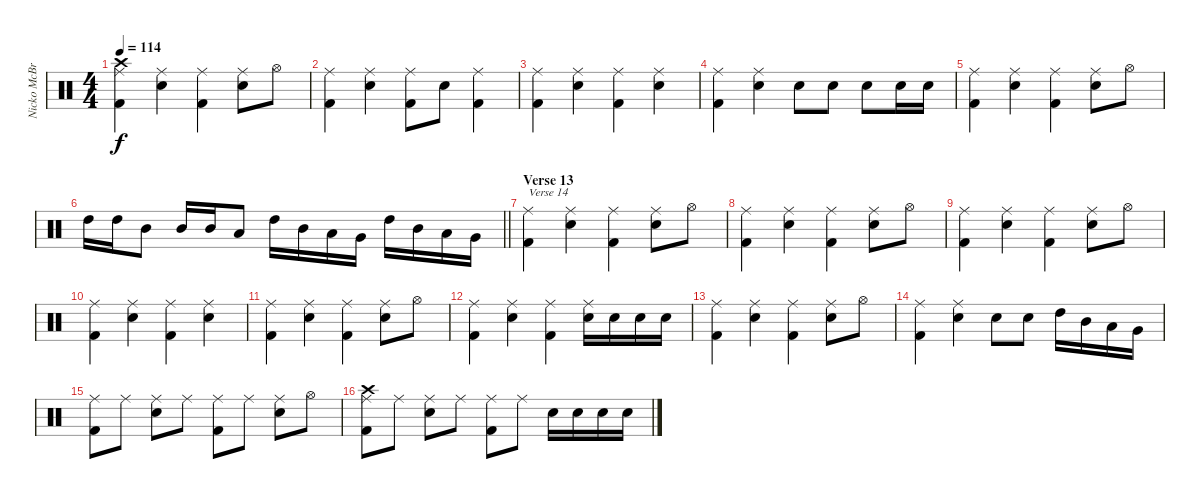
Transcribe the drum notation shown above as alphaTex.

\track ("Nicko McBrain" "Nicko McBr") {instrument percussion}
\staff {score}
\articulation defaults
\ts (4 4)
\tempo 114
\clef neutral
\ks c
("Ride (middle)" "Kick (hit) 2" "Crash high (hit)").4{dy f} ("Ride (middle)" "Snare (hit) 2").4 ("Ride (middle)" "Kick (hit) 2").4 ("Ride (middle)" "Snare (hit) 2").8 "Hi-Hat (open)".8 |
("Ride (middle)" "Kick (hit) 2").4 ("Ride (middle)" "Snare (hit) 2").4 ("Ride (middle)" "Kick (hit) 2").8 "Snare (hit) 2".8 ("Ride (middle)" "Kick (hit) 2").4 |
("Ride (middle)" "Kick (hit) 2").4 ("Ride (middle)" "Snare (hit) 2").4 ("Ride (middle)" "Kick (hit) 2").4 ("Ride (middle)" "Snare (hit) 2").4 |
("Ride (middle)" "Kick (hit) 2").4 ("Ride (middle)" "Snare (hit) 2").4 "Snare (hit) 2".8 "Snare (hit) 2".8 "Snare (hit) 2".8 "Snare (hit) 2".16 "Snare (hit) 2".16 |
("Ride (middle)" "Kick (hit) 2").4 ("Ride (middle)" "Snare (hit) 2").4 ("Ride (middle)" "Kick (hit) 2").4 ("Ride (middle)" "Snare (hit) 2").8 "Hi-Hat (open)".8 |
\barLineRight lightlight "High Tom (hit)".16 "High Tom (hit)".16 "Mid Tom (hit)".8 "Mid Tom (hit)".16 "Mid Tom (hit)".16 "Low Tom (hit)".8 "High Tom (hit)".16 "Mid Tom (hit)".16 "Low Tom (hit)".16 "Very Low Tom (hit)".16 "High Tom (hit)".16 "Mid Tom (hit)".16 "Low Tom (hit)".16 "Very Low Tom (hit)".16
|
\section ("" "Verse 13")
("Ride (middle)" "Kick (hit) 2").4{txt "Verse 14"} ("Ride (middle)" "Snare (hit) 2").4 ("Ride (middle)" "Kick (hit) 2").4 ("Ride (middle)" "Snare (hit) 2").8 "Hi-Hat (open)".8 |
("Ride (middle)" "Kick (hit) 2").4 ("Ride (middle)" "Snare (hit) 2").4 ("Ride (middle)" "Kick (hit) 2").4 ("Ride (middle)" "Snare (hit) 2").8 "Hi-Hat (open)".8 |
("Ride (middle)" "Kick (hit) 2").4 ("Ride (middle)" "Snare (hit) 2").4 ("Ride (middle)" "Kick (hit) 2").4 ("Ride (middle)" "Snare (hit) 2").8 "Hi-Hat (open)".8 |
("Ride (middle)" "Kick (hit) 2").4 ("Ride (middle)" "Snare (hit) 2").4 ("Ride (middle)" "Kick (hit) 2").4 ("Ride (middle)" "Snare (hit) 2").4 |
("Ride (middle)" "Kick (hit) 2").4 ("Ride (middle)" "Snare (hit) 2").4 ("Ride (middle)" "Kick (hit) 2").4 ("Ride (middle)" "Snare (hit) 2").8 "Hi-Hat (open)".8 |
("Ride (middle)" "Kick (hit) 2").4 ("Ride (middle)" "Snare (hit) 2").4 ("Ride (middle)" "Kick (hit) 2").4 ("Ride (middle)" "Snare (hit) 2").16 "Snare (hit) 2".16 "Snare (hit) 2".16 "Snare (hit) 2".16 |
("Ride (middle)" "Kick (hit) 2").4 ("Ride (middle)" "Snare (hit) 2").4 ("Ride (middle)" "Kick (hit) 2").4 ("Ride (middle)" "Snare (hit) 2").8 "Hi-Hat (open)".8 |
("Ride (middle)" "Kick (hit) 2").4 ("Ride (middle)" "Snare (hit) 2").4 "Snare (hit) 2".8 "Snare (hit) 2".8 "High Tom (hit)".16 "Mid Tom (hit)".16 "Low Tom (hit)".16 "Very Low Tom (hit)".16 |
("Ride (middle)" "Kick (hit) 2").8 "Ride (middle)".8 ("Ride (middle)" "Snare (hit) 2").8 "Ride (middle)".8 ("Ride (middle)" "Kick (hit) 2").8 "Ride (middle)".8 ("Ride (middle)" "Snare (hit) 2").8 "Hi-Hat (open)".8 |
("Ride (middle)" "Kick (hit) 2" "Crash high (hit)").8 "Ride (middle)".8 ("Ride (middle)" "Snare (hit) 2").8 "Ride (middle)".8 ("Ride (middle)" "Kick (hit) 2").8 "Ride (middle)".8 "Snare (hit) 2".16 "Snare (hit) 2".16 "Snare (hit) 2".16 "Snare (hit) 2".16
